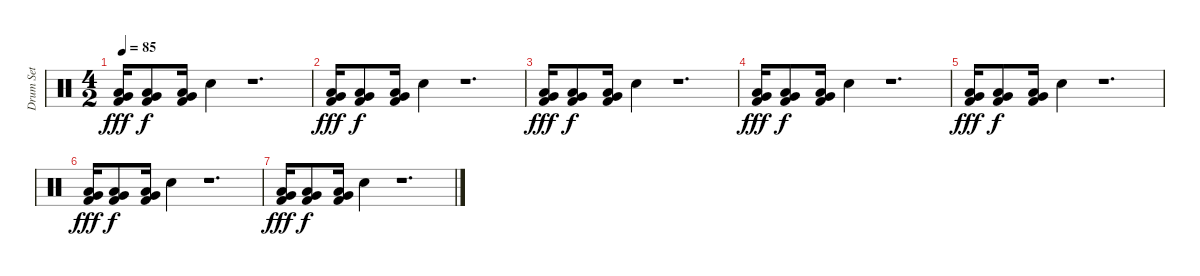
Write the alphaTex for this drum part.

\track ("Drum Set" "Drum Set") {instrument percussion}
\staff {score}
\articulation defaults
\ts (4 2)
\tempo 85
\clef neutral
\ks c
("Very Low Tom (hit)" "Low Floor Tom (hit)" "Kick (hit) 2").16{dy fff} ("Very Low Tom (hit)" "Low Floor Tom (hit)" "Kick (hit) 2").8{dy f} ("Very Low Tom (hit)" "Low Floor Tom (hit)" "Kick (hit) 2").16 "Snare (hit) 2".4 r.1{d} |
("Very Low Tom (hit)" "Low Floor Tom (hit)" "Kick (hit) 2").16{dy fff} ("Very Low Tom (hit)" "Low Floor Tom (hit)" "Kick (hit) 2").8{dy f} ("Very Low Tom (hit)" "Low Floor Tom (hit)" "Kick (hit) 2").16 "Snare (hit) 2".4 r.1{d} |
("Very Low Tom (hit)" "Low Floor Tom (hit)" "Kick (hit) 2").16{dy fff} ("Very Low Tom (hit)" "Low Floor Tom (hit)" "Kick (hit) 2").8{dy f} ("Very Low Tom (hit)" "Low Floor Tom (hit)" "Kick (hit) 2").16 "Snare (hit) 2".4 r.1{d} |
("Very Low Tom (hit)" "Low Floor Tom (hit)" "Kick (hit) 2").16{dy fff volume 6} ("Very Low Tom (hit)" "Low Floor Tom (hit)" "Kick (hit) 2").8{dy f} ("Very Low Tom (hit)" "Low Floor Tom (hit)" "Kick (hit) 2").16 "Snare (hit) 2".4 r.1{d} |
("Very Low Tom (hit)" "Low Floor Tom (hit)" "Kick (hit) 2").16{dy fff} ("Very Low Tom (hit)" "Low Floor Tom (hit)" "Kick (hit) 2").8{dy f} ("Very Low Tom (hit)" "Low Floor Tom (hit)" "Kick (hit) 2").16 "Snare (hit) 2".4 r.1{d} |
("Very Low Tom (hit)" "Low Floor Tom (hit)" "Kick (hit) 2").16{dy fff volume 0} ("Very Low Tom (hit)" "Low Floor Tom (hit)" "Kick (hit) 2").8{dy f} ("Very Low Tom (hit)" "Low Floor Tom (hit)" "Kick (hit) 2").16 "Snare (hit) 2".4 r.1{d} |
("Very Low Tom (hit)" "Low Floor Tom (hit)" "Kick (hit) 2").16{dy fff} ("Very Low Tom (hit)" "Low Floor Tom (hit)" "Kick (hit) 2").8{dy f} ("Very Low Tom (hit)" "Low Floor Tom (hit)" "Kick (hit) 2").16 "Snare (hit) 2".4 r.1{d}
